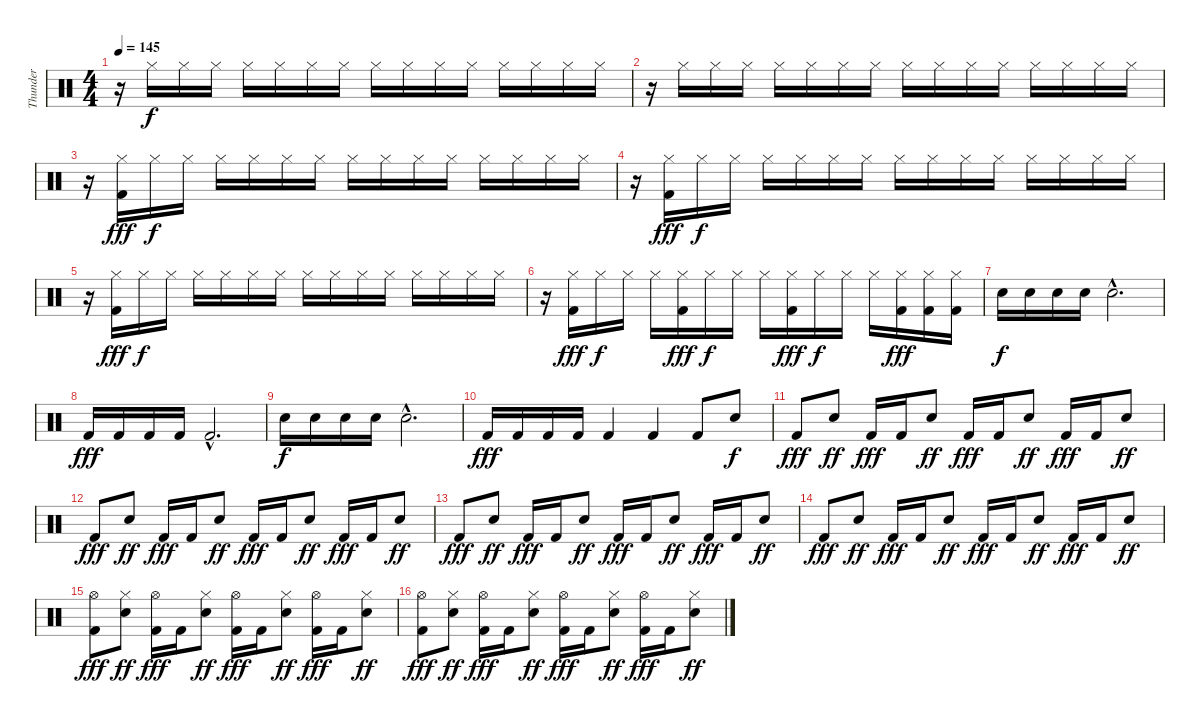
\track ("Thunder" "Thunder") {instrument percussion}
\staff {score}
\articulation defaults
\ts (4 4)
\tempo 145
\clef neutral
\ks c
r.16{dy f} "Hi-Hat (closed)".16 "Hi-Hat (closed)".16 "Hi-Hat (closed)".16 "Hi-Hat (closed)".16 "Hi-Hat (closed)".16 "Hi-Hat (closed)".16 "Hi-Hat (closed)".16 "Hi-Hat (closed)".16 "Hi-Hat (closed)".16 "Hi-Hat (closed)".16 "Hi-Hat (closed)".16 "Hi-Hat (closed)".16 "Hi-Hat (closed)".16 "Hi-Hat (closed)".16 "Hi-Hat (closed)".16 |
r.16 "Hi-Hat (closed)".16 "Hi-Hat (closed)".16 "Hi-Hat (closed)".16 "Hi-Hat (closed)".16 "Hi-Hat (closed)".16 "Hi-Hat (closed)".16 "Hi-Hat (closed)".16 "Hi-Hat (closed)".16 "Hi-Hat (closed)".16 "Hi-Hat (closed)".16 "Hi-Hat (closed)".16 "Hi-Hat (closed)".16 "Hi-Hat (closed)".16 "Hi-Hat (closed)".16 "Hi-Hat (closed)".16 |
r.16 ("Hi-Hat (closed)" "Kick (hit) 2").16{dy fff} "Hi-Hat (closed)".16{dy f} "Hi-Hat (closed)".16 "Hi-Hat (closed)".16 "Hi-Hat (closed)".16 "Hi-Hat (closed)".16 "Hi-Hat (closed)".16 "Hi-Hat (closed)".16 "Hi-Hat (closed)".16 "Hi-Hat (closed)".16 "Hi-Hat (closed)".16 "Hi-Hat (closed)".16 "Hi-Hat (closed)".16 "Hi-Hat (closed)".16 "Hi-Hat (closed)".16 |
r.16 ("Hi-Hat (closed)" "Kick (hit) 2").16{dy fff} "Hi-Hat (closed)".16{dy f} "Hi-Hat (closed)".16 "Hi-Hat (closed)".16 "Hi-Hat (closed)".16 "Hi-Hat (closed)".16 "Hi-Hat (closed)".16 "Hi-Hat (closed)".16 "Hi-Hat (closed)".16 "Hi-Hat (closed)".16 "Hi-Hat (closed)".16 "Hi-Hat (closed)".16 "Hi-Hat (closed)".16 "Hi-Hat (closed)".16 "Hi-Hat (closed)".16 |
r.16 ("Hi-Hat (closed)" "Kick (hit) 2").16{dy fff} "Hi-Hat (closed)".16{dy f} "Hi-Hat (closed)".16 "Hi-Hat (closed)".16 "Hi-Hat (closed)".16 "Hi-Hat (closed)".16 "Hi-Hat (closed)".16 "Hi-Hat (closed)".16 "Hi-Hat (closed)".16 "Hi-Hat (closed)".16 "Hi-Hat (closed)".16 "Hi-Hat (closed)".16 "Hi-Hat (closed)".16 "Hi-Hat (closed)".16 "Hi-Hat (closed)".16 |
r.16 ("Hi-Hat (closed)" "Kick (hit) 2").16{dy fff} "Hi-Hat (closed)".16{dy f} "Hi-Hat (closed)".16 "Hi-Hat (closed)".16 ("Hi-Hat (closed)" "Kick (hit) 2").16{dy fff} "Hi-Hat (closed)".16{dy f} "Hi-Hat (closed)".16 "Hi-Hat (closed)".16 ("Hi-Hat (closed)" "Kick (hit) 2").16{dy fff} "Hi-Hat (closed)".16{dy f} "Hi-Hat (closed)".16 "Hi-Hat (closed)".16 ("Hi-Hat (closed)" "Kick (hit) 2").16{dy fff} ("Hi-Hat (closed)" "Kick (hit) 2").16 ("Hi-Hat (closed)" "Kick (hit) 2").16 |
"Electric Snare (hit)".16{dy f} "Electric Snare (hit)".16 "Electric Snare (hit)".16 "Electric Snare (hit)".16 "Electric Snare (hit)"{hac}.2{d} |
"Kick (hit) 2".16{dy fff} "Kick (hit) 2".16 "Kick (hit) 2".16 "Kick (hit) 2".16 "Kick (hit) 2"{hac}.2{d} |
"Electric Snare (hit)".16{dy f} "Electric Snare (hit)".16 "Electric Snare (hit)".16 "Electric Snare (hit)".16 "Electric Snare (hit)"{hac}.2{d} |
"Kick (hit) 2".16{dy fff} "Kick (hit) 2".16 "Kick (hit) 2".16 "Kick (hit) 2".16 "Kick (hit) 2".4 "Kick (hit) 2".4 "Kick (hit) 2".8 "Electric Snare (hit)".8{dy f} |
"Kick (hit) 2".8{dy fff} "Electric Snare (hit)".8{dy ff} "Kick (hit) 2".16{dy fff} "Kick (hit) 2".16 "Electric Snare (hit)".8{dy ff} "Kick (hit) 2".16{dy fff} "Kick (hit) 2".16 "Electric Snare (hit)".8{dy ff} "Kick (hit) 2".16{dy fff} "Kick (hit) 2".16 "Electric Snare (hit)".8{dy ff} |
"Kick (hit) 2".8{dy fff} "Electric Snare (hit)".8{dy ff} "Kick (hit) 2".16{dy fff} "Kick (hit) 2".16 "Electric Snare (hit)".8{dy ff} "Kick (hit) 2".16{dy fff} "Kick (hit) 2".16 "Electric Snare (hit)".8{dy ff} "Kick (hit) 2".16{dy fff} "Kick (hit) 2".16 "Electric Snare (hit)".8{dy ff} |
"Kick (hit) 2".8{dy fff} "Electric Snare (hit)".8{dy ff} "Kick (hit) 2".16{dy fff} "Kick (hit) 2".16 "Electric Snare (hit)".8{dy ff} "Kick (hit) 2".16{dy fff} "Kick (hit) 2".16 "Electric Snare (hit)".8{dy ff} "Kick (hit) 2".16{dy fff} "Kick (hit) 2".16 "Electric Snare (hit)".8{dy ff} |
"Kick (hit) 2".8{dy fff} "Electric Snare (hit)".8{dy ff} "Kick (hit) 2".16{dy fff} "Kick (hit) 2".16 "Electric Snare (hit)".8{dy ff} "Kick (hit) 2".16{dy fff} "Kick (hit) 2".16 "Electric Snare (hit)".8{dy ff} "Kick (hit) 2".16{dy fff} "Kick (hit) 2".16 "Electric Snare (hit)".8{dy ff} |
("Hi-Hat (open)" "Kick (hit) 2").8{dy fff} ("Hi-Hat (closed)" "Electric Snare (hit)").8{dy ff} ("Hi-Hat (open)" "Kick (hit) 2").16{dy fff} "Kick (hit) 2".16 ("Hi-Hat (closed)" "Electric Snare (hit)").8{dy ff} ("Hi-Hat (open)" "Kick (hit) 2").16{dy fff} "Kick (hit) 2".16 ("Hi-Hat (closed)" "Electric Snare (hit)").8{dy ff} ("Hi-Hat (open)" "Kick (hit) 2").16{dy fff} "Kick (hit) 2".16 ("Hi-Hat (closed)" "Electric Snare (hit)").8{dy ff} |
("Hi-Hat (open)" "Kick (hit) 2").8{dy fff} ("Hi-Hat (closed)" "Electric Snare (hit)").8{dy ff} ("Hi-Hat (open)" "Kick (hit) 2").16{dy fff} "Kick (hit) 2".16 ("Hi-Hat (closed)" "Electric Snare (hit)").8{dy ff} ("Hi-Hat (open)" "Kick (hit) 2").16{dy fff} "Kick (hit) 2".16 ("Hi-Hat (closed)" "Electric Snare (hit)").8{dy ff} ("Hi-Hat (open)" "Kick (hit) 2").16{dy fff} "Kick (hit) 2".16 ("Hi-Hat (closed)" "Electric Snare (hit)").8{dy ff}
